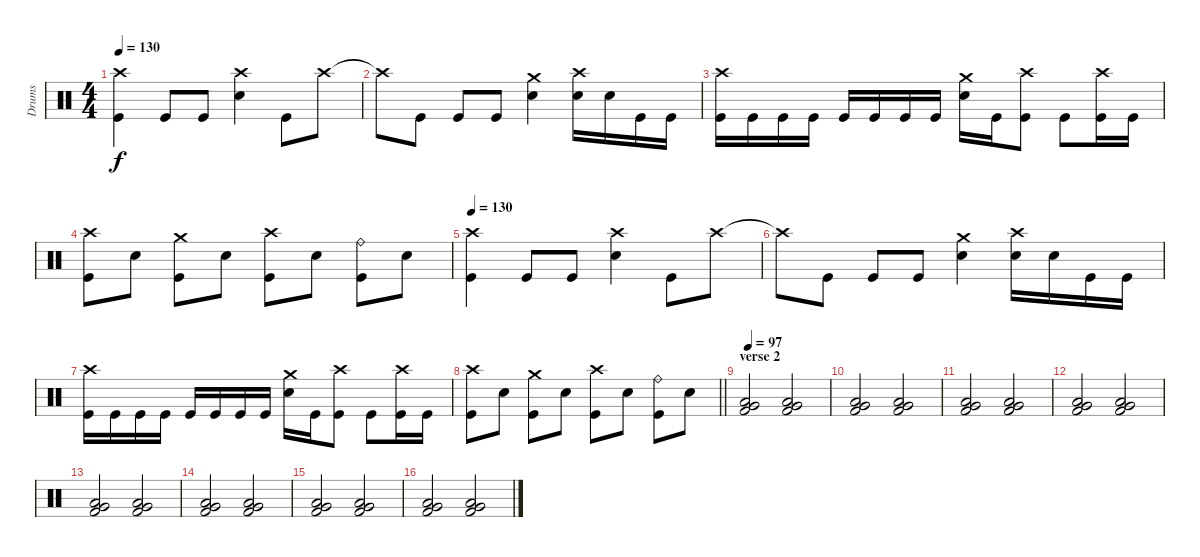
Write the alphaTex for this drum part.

\track ("Drums" "Drums") {solo instrument percussion}
\staff {score}
\articulation defaults
\ts (4 4)
\tempo 140
\tempo 130
\clef neutral
\ks c
("Crash high (hit)" "Kick (hit)").4{dy f} "Kick (hit)".8 "Kick (hit)".8 ("Crash high (hit)" "Electric Snare (hit)").4 "Kick (hit)".8 "Crash high (hit)".8 |
"Crash high (hit)"{t}.8 "Kick (hit)".8 "Kick (hit)".8 "Kick (hit)".8 ("Crash medium (hit)" "Electric Snare (hit)").4 ("Crash high (hit)" "Electric Snare (hit)").16 "Electric Snare (hit)".16 "Kick (hit)".16 "Kick (hit)".16 |
("Crash high (hit)" "Kick (hit)").16 "Kick (hit)".16 "Kick (hit)".16 "Kick (hit)".16 "Kick (hit)".16 "Kick (hit)".16 "Kick (hit)".16 "Kick (hit)".16 ("Crash medium (hit)" "Electric Snare (hit)").16 "Kick (hit)".16 ("Crash high (hit)" "Kick (hit)").8 "Kick (hit)".8 ("Crash high (hit)" "Kick (hit)").16 "Kick (hit)".16 |
("Crash high (hit)" "Kick (hit)").8 "Electric Snare (hit)".8 ("Crash medium (hit)" "Kick (hit)").8 "Electric Snare (hit)".8 ("Crash high (hit)" "Kick (hit)").8 "Electric Snare (hit)".8 ("Ride (bell)" "Kick (hit)").8 "Electric Snare (hit)".8 |
\tempo 140
\tempo 130
("Crash high (hit)" "Kick (hit)").4 "Kick (hit)".8 "Kick (hit)".8 ("Crash high (hit)" "Electric Snare (hit)").4 "Kick (hit)".8 "Crash high (hit)".8 |
"Crash high (hit)"{t}.8 "Kick (hit)".8 "Kick (hit)".8 "Kick (hit)".8 ("Crash medium (hit)" "Electric Snare (hit)").4 ("Crash high (hit)" "Electric Snare (hit)").16 "Electric Snare (hit)".16 "Kick (hit)".16 "Kick (hit)".16 |
("Crash high (hit)" "Kick (hit)").16 "Kick (hit)".16 "Kick (hit)".16 "Kick (hit)".16 "Kick (hit)".16 "Kick (hit)".16 "Kick (hit)".16 "Kick (hit)".16 ("Crash medium (hit)" "Electric Snare (hit)").16 "Kick (hit)".16 ("Crash high (hit)" "Kick (hit)").8 "Kick (hit)".8 ("Crash high (hit)" "Kick (hit)").16 "Kick (hit)".16 |
\barLineRight lightlight
("Crash high (hit)" "Kick (hit)").8 "Electric Snare (hit)".8 ("Crash medium (hit)" "Kick (hit)").8 "Electric Snare (hit)".8 ("Crash high (hit)" "Kick (hit)").8 "Electric Snare (hit)".8 ("Ride (bell)" "Kick (hit)").8 "Electric Snare (hit)".8 |
\section ("" "verse 2")
\tempo 97
("Kick (hit) 2" "Low Floor Tom (hit)" "Very Low Tom (hit)").2 ("Kick (hit) 2" "Low Floor Tom (hit)" "Very Low Tom (hit)").2 |
("Kick (hit) 2" "Low Floor Tom (hit)" "Very Low Tom (hit)").2 ("Kick (hit) 2" "Low Floor Tom (hit)" "Very Low Tom (hit)").2 |
("Kick (hit) 2" "Low Floor Tom (hit)" "Very Low Tom (hit)").2 ("Kick (hit) 2" "Low Floor Tom (hit)" "Very Low Tom (hit)").2 |
("Kick (hit) 2" "Low Floor Tom (hit)" "Very Low Tom (hit)").2 ("Kick (hit) 2" "Low Floor Tom (hit)" "Very Low Tom (hit)").2 |
("Kick (hit) 2" "Low Floor Tom (hit)" "Very Low Tom (hit)").2 ("Kick (hit) 2" "Low Floor Tom (hit)" "Very Low Tom (hit)").2 |
("Kick (hit) 2" "Low Floor Tom (hit)" "Very Low Tom (hit)").2 ("Kick (hit) 2" "Low Floor Tom (hit)" "Very Low Tom (hit)").2 |
("Kick (hit) 2" "Low Floor Tom (hit)" "Very Low Tom (hit)").2 ("Kick (hit) 2" "Low Floor Tom (hit)" "Very Low Tom (hit)").2 |
("Kick (hit) 2" "Low Floor Tom (hit)" "Very Low Tom (hit)").2 ("Kick (hit) 2" "Low Floor Tom (hit)" "Very Low Tom (hit)").2
